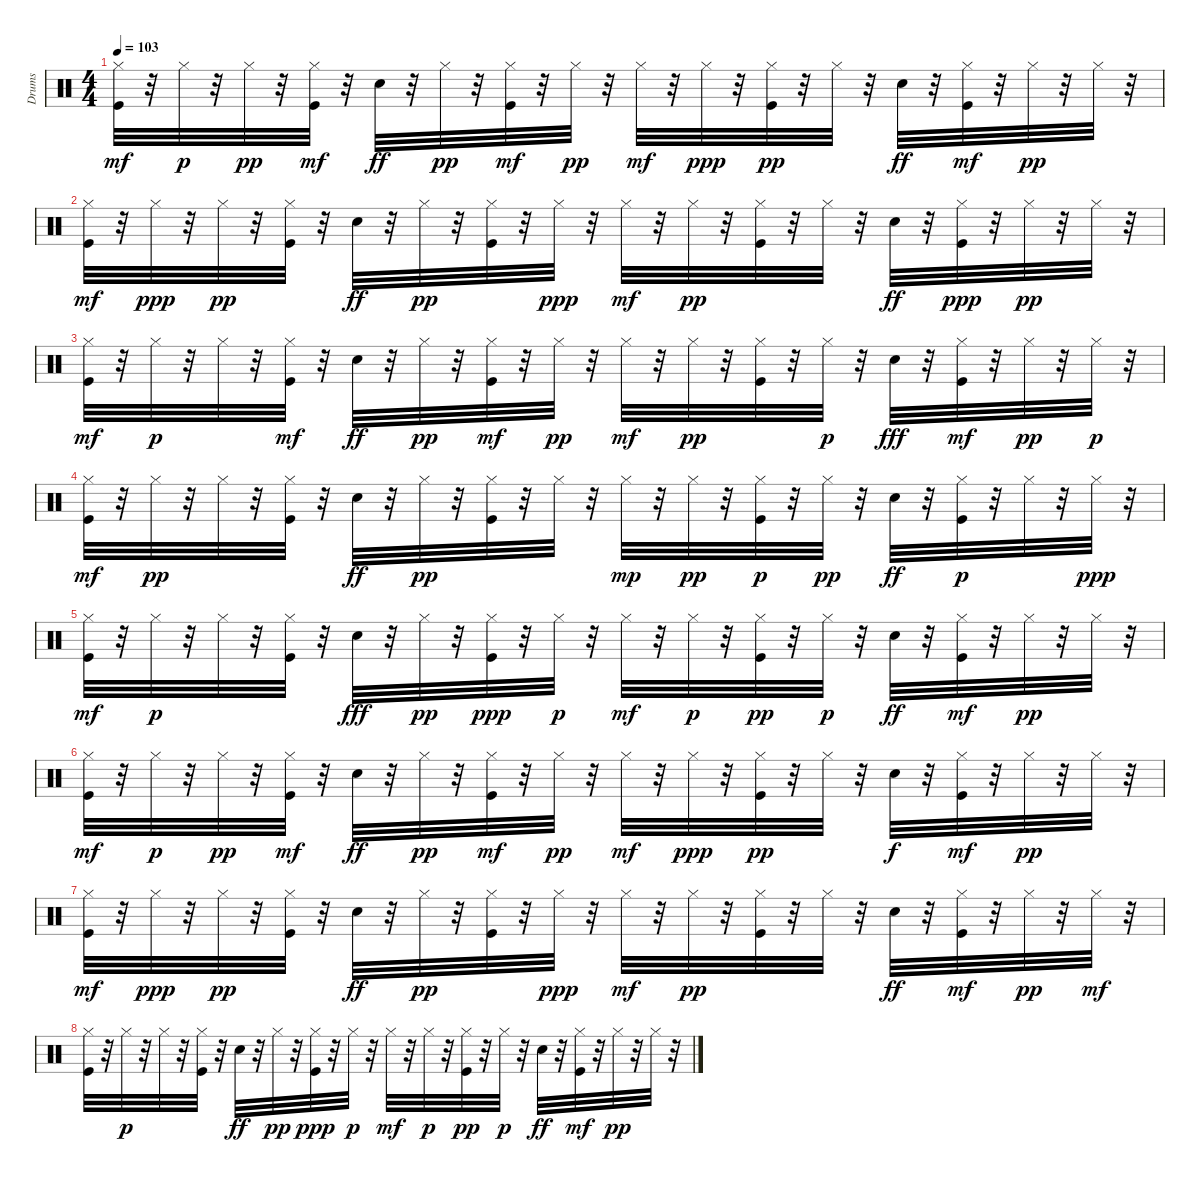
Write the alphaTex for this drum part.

\track ("Drums" "Drums") {instrument percussion}
\staff {score}
\articulation defaults
\ts (4 4)
\tempo 103
\clef neutral
\ks c
("Hi-Hat (closed)" "Kick (hit)").32{dy mf} r.32 "Hi-Hat (closed)".32{dy p} r.32 "Hi-Hat (closed)".32{dy pp} r.32 ("Hi-Hat (closed)" "Kick (hit)").32{dy mf} r.32 "Snare (hit) 2".32{dy ff} r.32 "Hi-Hat (closed)".32{dy pp} r.32 ("Hi-Hat (closed)" "Kick (hit)").32{dy mf} r.32 "Hi-Hat (closed)".32{dy pp} r.32 "Hi-Hat (closed)".32{dy mf} r.32 "Hi-Hat (closed)".32{dy ppp} r.32 ("Kick (hit)" "Hi-Hat (closed)").32{dy pp} r.32 "Hi-Hat (closed)".32 r.32 "Snare (hit) 2".32{dy ff} r.32 ("Hi-Hat (closed)" "Kick (hit)").32{dy mf} r.32 "Hi-Hat (closed)".32{dy pp} r.32 "Hi-Hat (closed)".32 r.32 |
("Hi-Hat (closed)" "Kick (hit)").32{dy mf} r.32 "Hi-Hat (closed)".32{dy ppp} r.32 "Hi-Hat (closed)".32{dy pp} r.32 ("Hi-Hat (closed)" "Kick (hit)").32 r.32 "Snare (hit) 2".32{dy ff} r.32 "Hi-Hat (closed)".32{dy pp} r.32 ("Hi-Hat (closed)" "Kick (hit)").32 r.32 "Hi-Hat (closed)".32{dy ppp} r.32 "Hi-Hat (closed)".32{dy mf} r.32 "Hi-Hat (closed)".32{dy pp} r.32 ("Hi-Hat (closed)" "Kick (hit)").32 r.32 "Hi-Hat (closed)".32 r.32 "Snare (hit) 2".32{dy ff} r.32 ("Hi-Hat (closed)" "Kick (hit)").32{dy ppp} r.32 "Hi-Hat (closed)".32{dy pp} r.32 "Hi-Hat (closed)".32 r.32 |
("Hi-Hat (closed)" "Kick (hit)").32{dy mf} r.32 "Hi-Hat (closed)".32{dy p} r.32 "Hi-Hat (closed)".32 r.32 ("Hi-Hat (closed)" "Kick (hit)").32{dy mf} r.32 "Snare (hit) 2".32{dy ff} r.32 "Hi-Hat (closed)".32{dy pp} r.32 ("Hi-Hat (closed)" "Kick (hit)").32{dy mf} r.32 "Hi-Hat (closed)".32{dy pp} r.32 "Hi-Hat (closed)".32{dy mf} r.32 "Hi-Hat (closed)".32{dy pp} r.32 ("Kick (hit)" "Hi-Hat (closed)").32 r.32 "Hi-Hat (closed)".32{dy p} r.32 "Snare (hit) 2".32{dy fff} r.32 ("Hi-Hat (closed)" "Kick (hit)").32{dy mf} r.32 "Hi-Hat (closed)".32{dy pp} r.32 "Hi-Hat (closed)".32{dy p} r.32 |
("Hi-Hat (closed)" "Kick (hit)").32{dy mf} r.32 "Hi-Hat (closed)".32{dy pp} r.32 "Hi-Hat (closed)".32 r.32 ("Hi-Hat (closed)" "Kick (hit)").32 r.32 "Snare (hit) 2".32{dy ff} r.32 "Hi-Hat (closed)".32{dy pp} r.32 ("Hi-Hat (closed)" "Kick (hit)").32 r.32 "Hi-Hat (closed)".32 r.32 "Hi-Hat (closed)".32{dy mp} r.32 "Hi-Hat (closed)".32{dy pp} r.32 ("Hi-Hat (closed)" "Kick (hit)").32{dy p} r.32 "Hi-Hat (closed)".32{dy pp} r.32 "Snare (hit) 2".32{dy ff} r.32 ("Hi-Hat (closed)" "Kick (hit)").32{dy p} r.32 "Hi-Hat (closed)".32 r.32 "Hi-Hat (closed)".32{dy ppp} r.32 |
("Kick (hit)" "Hi-Hat (closed)").32{dy mf} r.32 "Hi-Hat (closed)".32{dy p} r.32 "Hi-Hat (closed)".32 r.32 ("Kick (hit)" "Hi-Hat (closed)").32 r.32 "Snare (hit) 2".32{dy fff} r.32 "Hi-Hat (closed)".32{dy pp} r.32 ("Hi-Hat (closed)" "Kick (hit)").32{dy ppp} r.32 "Hi-Hat (closed)".32{dy p} r.32 "Hi-Hat (closed)".32{dy mf} r.32 "Hi-Hat (closed)".32{dy p} r.32 ("Kick (hit)" "Hi-Hat (closed)").32{dy pp} r.32 "Hi-Hat (closed)".32{dy p} r.32 "Snare (hit) 2".32{dy ff} r.32 ("Hi-Hat (closed)" "Kick (hit)").32{dy mf} r.32 "Hi-Hat (closed)".32{dy pp} r.32 "Hi-Hat (closed)".32 r.32 |
("Hi-Hat (closed)" "Kick (hit)").32{dy mf} r.32 "Hi-Hat (closed)".32{dy p} r.32 "Hi-Hat (closed)".32{dy pp} r.32 ("Hi-Hat (closed)" "Kick (hit)").32{dy mf} r.32 "Snare (hit) 2".32{dy ff} r.32 "Hi-Hat (closed)".32{dy pp} r.32 ("Hi-Hat (closed)" "Kick (hit)").32{dy mf} r.32 "Hi-Hat (closed)".32{dy pp} r.32 "Hi-Hat (closed)".32{dy mf} r.32 "Hi-Hat (closed)".32{dy ppp} r.32 ("Kick (hit)" "Hi-Hat (closed)").32{dy pp} r.32 "Hi-Hat (closed)".32 r.32 "Snare (hit) 2".32{dy f} r.32 ("Hi-Hat (closed)" "Kick (hit)").32{dy mf} r.32 "Hi-Hat (closed)".32{dy pp} r.32 "Hi-Hat (closed)".32 r.32 |
("Hi-Hat (closed)" "Kick (hit)").32{dy mf} r.32 "Hi-Hat (closed)".32{dy ppp} r.32 "Hi-Hat (closed)".32{dy pp} r.32 ("Kick (hit)" "Hi-Hat (closed)").32 r.32 "Snare (hit) 2".32{dy ff} r.32 "Hi-Hat (closed)".32{dy pp} r.32 ("Hi-Hat (closed)" "Kick (hit)").32 r.32 "Hi-Hat (closed)".32{dy ppp} r.32 "Hi-Hat (closed)".32{dy mf} r.32 "Hi-Hat (closed)".32{dy pp} r.32 ("Hi-Hat (closed)" "Kick (hit)").32 r.32 "Hi-Hat (closed)".32 r.32 "Snare (hit) 2".32{dy ff} r.32 ("Hi-Hat (closed)" "Kick (hit)").32{dy mf} r.32 "Hi-Hat (closed)".32{dy pp} r.32 "Hi-Hat (closed)".32{dy mf} r.32 |
("Hi-Hat (closed)" "Kick (hit)").32 r.32 "Hi-Hat (closed)".32{dy p} r.32 "Hi-Hat (closed)".32 r.32 ("Kick (hit)" "Hi-Hat (closed)").32 r.32 "Snare (hit) 2".32{dy ff} r.32 "Hi-Hat (closed)".32{dy pp} r.32 ("Hi-Hat (closed)" "Kick (hit)").32{dy ppp} r.32 "Hi-Hat (closed)".32{dy p} r.32 "Hi-Hat (closed)".32{dy mf} r.32 "Hi-Hat (closed)".32{dy p} r.32 ("Kick (hit)" "Hi-Hat (closed)").32{dy pp} r.32 "Hi-Hat (closed)".32{dy p} r.32 "Snare (hit) 2".32{dy ff} r.32 ("Hi-Hat (closed)" "Kick (hit)").32{dy mf} r.32 "Hi-Hat (closed)".32{dy pp} r.32 "Hi-Hat (closed)".32 r.32
